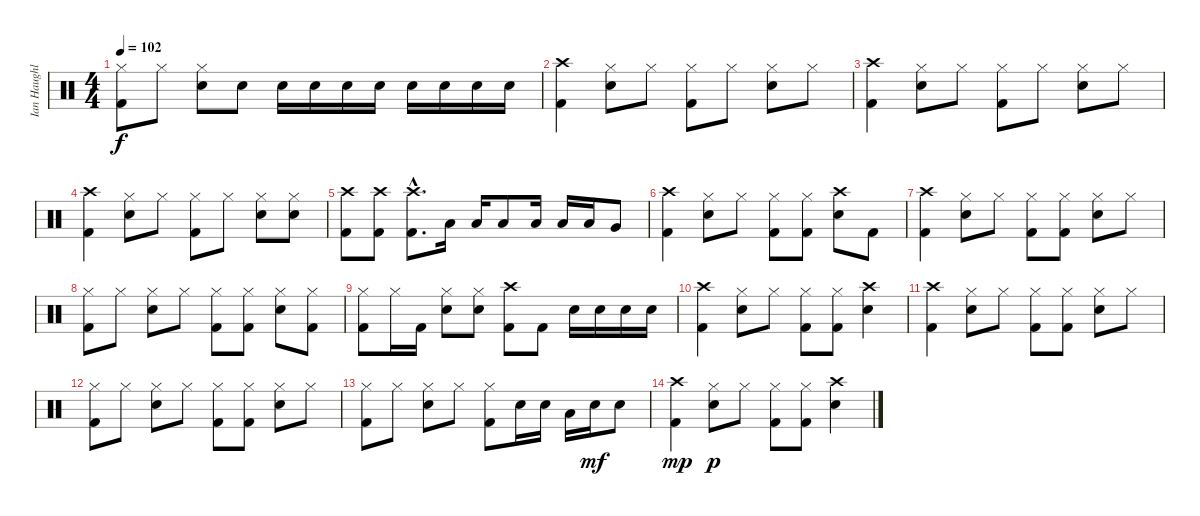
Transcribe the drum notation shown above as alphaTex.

\track ("Ian Haughland" "Ian Haughl") {instrument percussion}
\staff {score}
\articulation defaults
\ts (4 4)
\tempo 102
\clef neutral
\ks c
("Hi-Hat (closed)" "Kick (hit) 2").8{dy f} "Hi-Hat (closed)".8 ("Hi-Hat (closed)" "Snare (hit) 2").8 "Snare (hit) 2".8 "Snare (hit) 2".16 "Snare (hit) 2".16 "Snare (hit) 2".16 "Snare (hit) 2".16 "Snare (hit) 2".16 "Snare (hit) 2".16 "Snare (hit) 2".16 "Snare (hit) 2".16 |
("Crash high (hit)" "Kick (hit) 2").4 ("Hi-Hat (closed)" "Snare (hit) 2").8 "Hi-Hat (closed)".8 ("Hi-Hat (closed)" "Kick (hit) 2").8 "Hi-Hat (closed)".8 ("Hi-Hat (closed)" "Snare (hit) 2").8 "Hi-Hat (closed)".8 |
("Crash high (hit)" "Kick (hit) 2").4 ("Hi-Hat (closed)" "Snare (hit) 2").8 "Hi-Hat (closed)".8 ("Hi-Hat (closed)" "Kick (hit) 2").8 "Hi-Hat (closed)".8 ("Hi-Hat (closed)" "Snare (hit) 2").8 "Hi-Hat (closed)".8 |
("Crash high (hit)" "Kick (hit) 2").4 ("Hi-Hat (closed)" "Snare (hit) 2").8 "Hi-Hat (closed)".8 ("Hi-Hat (closed)" "Kick (hit) 2").8 "Hi-Hat (closed)".8 ("Hi-Hat (closed)" "Snare (hit) 2").8 ("Hi-Hat (closed)" "Snare (hit) 2").8 |
("Crash high (hit)" "Kick (hit) 2").8 ("Crash high (hit)" "Kick (hit) 2").8 ("Crash high (hit)"{hac} "Kick (hit) 2"{hac}).8{d} "Low Tom (hit)".16 "Low Tom (hit)".16 "Low Tom (hit)".8 "Low Tom (hit)".16 "Low Tom (hit)".16 "Low Tom (hit)".16 "Very Low Tom (hit)".8 |
("Crash high (hit)" "Kick (hit) 2").4 ("Hi-Hat (closed)" "Snare (hit) 2").8 "Hi-Hat (closed)".8 ("Hi-Hat (closed)" "Kick (hit) 2").8 ("Hi-Hat (closed)" "Kick (hit) 2").8 ("Crash high (hit)" "Snare (hit) 2").8 "Kick (hit) 2".8 |
("Crash high (hit)" "Kick (hit) 2").4 ("Hi-Hat (closed)" "Snare (hit) 2").8 "Hi-Hat (closed)".8 ("Hi-Hat (closed)" "Kick (hit) 2").8 ("Hi-Hat (closed)" "Kick (hit) 2").8 ("Hi-Hat (closed)" "Snare (hit) 2").8 "Hi-Hat (closed)".8 |
("Hi-Hat (closed)" "Kick (hit) 2").8 "Hi-Hat (closed)".8 ("Hi-Hat (closed)" "Snare (hit) 2").8 "Hi-Hat (closed)".8 ("Hi-Hat (closed)" "Kick (hit) 2").8 ("Hi-Hat (closed)" "Kick (hit) 2").8 ("Hi-Hat (closed)" "Snare (hit) 2").8 ("Hi-Hat (closed)" "Kick (hit) 2").8 |
("Hi-Hat (closed)" "Kick (hit) 2").8 "Hi-Hat (closed)".16 "Kick (hit) 2".16 ("Hi-Hat (closed)" "Snare (hit) 2").8 ("Hi-Hat (closed)" "Snare (hit) 2").8 ("Crash high (hit)" "Kick (hit) 2").8 "Kick (hit) 2".8 "Snare (hit) 2".16 "Snare (hit) 2".16 "Snare (hit) 2".16 "Snare (hit) 2".16 |
("Crash high (hit)" "Kick (hit) 2").4 ("Hi-Hat (closed)" "Snare (hit) 2").8 "Hi-Hat (closed)".8 ("Hi-Hat (closed)" "Kick (hit) 2").8 ("Hi-Hat (closed)" "Kick (hit) 2").8 ("Crash high (hit)" "Snare (hit) 2").4 |
("Crash high (hit)" "Kick (hit) 2").4 ("Hi-Hat (closed)" "Snare (hit) 2").8 "Hi-Hat (closed)".8 ("Hi-Hat (closed)" "Kick (hit) 2").8 ("Hi-Hat (closed)" "Kick (hit) 2").8 ("Hi-Hat (closed)" "Snare (hit) 2").8 "Hi-Hat (closed)".8 |
("Hi-Hat (closed)" "Kick (hit) 2").8 "Hi-Hat (closed)".8 ("Hi-Hat (closed)" "Snare (hit) 2").8 "Hi-Hat (closed)".8 ("Hi-Hat (closed)" "Kick (hit) 2").8 ("Hi-Hat (closed)" "Kick (hit) 2").8 ("Hi-Hat (closed)" "Snare (hit) 2").8 "Hi-Hat (closed)".8 |
("Hi-Hat (closed)" "Kick (hit) 2").8 "Hi-Hat (closed)".8 ("Hi-Hat (closed)" "Snare (hit) 2").8 "Hi-Hat (closed)".8 ("Hi-Hat (closed)" "Kick (hit) 2").8 "Snare (hit) 2".16 "Snare (hit) 2".16 "Low Tom (hit)".16 "Snare (hit) 2".16{dy mf} "Snare (hit) 2".8 |
("Crash high (hit)" "Kick (hit) 2").4{dy mp} ("Hi-Hat (closed)" "Snare (hit) 2").8{dy p} "Hi-Hat (closed)".8 ("Hi-Hat (closed)" "Kick (hit) 2").8 ("Hi-Hat (closed)" "Kick (hit) 2").8 ("Crash high (hit)" "Snare (hit) 2").4
